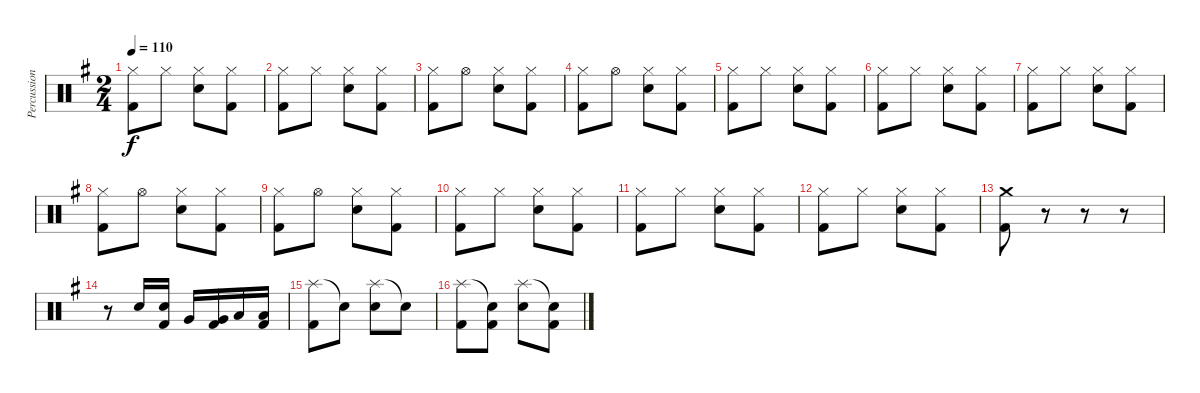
\track ("Percussion" "Percussion") {instrument percussion}
\staff {score}
\articulation defaults
\ts (2 4)
\tempo 110
\clef neutral
\ks g
("Hi-Hat (closed)" "Kick (hit) 2").8{dy f} "Hi-Hat (closed)".8 ("Hi-Hat (closed)" "Electric Snare (hit)").8 ("Hi-Hat (closed)" "Kick (hit) 2").8 |
("Hi-Hat (closed)" "Kick (hit) 2").8 "Hi-Hat (closed)".8 ("Hi-Hat (closed)" "Electric Snare (hit)").8 ("Hi-Hat (closed)" "Kick (hit) 2").8 |
("Hi-Hat (closed)" "Kick (hit) 2").8 "Hi-Hat (open)".8 ("Hi-Hat (closed)" "Electric Snare (hit)").8 ("Hi-Hat (closed)" "Kick (hit) 2").8 |
("Hi-Hat (closed)" "Kick (hit) 2").8 "Hi-Hat (open)".8 ("Hi-Hat (closed)" "Electric Snare (hit)").8 ("Hi-Hat (closed)" "Kick (hit) 2").8 |
("Hi-Hat (closed)" "Kick (hit) 2").8 "Hi-Hat (closed)".8 ("Hi-Hat (closed)" "Electric Snare (hit)").8 ("Hi-Hat (closed)" "Kick (hit) 2").8 |
("Hi-Hat (closed)" "Kick (hit) 2").8 "Hi-Hat (closed)".8 ("Hi-Hat (closed)" "Electric Snare (hit)").8 ("Hi-Hat (closed)" "Kick (hit) 2").8 |
("Hi-Hat (closed)" "Kick (hit) 2").8 "Hi-Hat (closed)".8 ("Hi-Hat (closed)" "Electric Snare (hit)").8 ("Hi-Hat (closed)" "Kick (hit) 2").8 |
("Hi-Hat (closed)" "Kick (hit) 2").8 "Hi-Hat (open)".8 ("Hi-Hat (closed)" "Electric Snare (hit)").8 ("Hi-Hat (closed)" "Kick (hit) 2").8 |
("Hi-Hat (closed)" "Kick (hit) 2").8 "Hi-Hat (open)".8 ("Hi-Hat (closed)" "Electric Snare (hit)").8 ("Hi-Hat (closed)" "Kick (hit) 2").8 |
("Hi-Hat (closed)" "Kick (hit) 2").8 "Hi-Hat (closed)".8 ("Hi-Hat (closed)" "Electric Snare (hit)").8 ("Hi-Hat (closed)" "Kick (hit) 2").8 |
("Hi-Hat (closed)" "Kick (hit) 2").8 "Hi-Hat (closed)".8 ("Hi-Hat (closed)" "Electric Snare (hit)").8 ("Hi-Hat (closed)" "Kick (hit) 2").8 |
("Hi-Hat (closed)" "Kick (hit) 2").8 "Hi-Hat (closed)".8 ("Hi-Hat (closed)" "Electric Snare (hit)").8 ("Hi-Hat (closed)" "Kick (hit) 2").8 |
("Crash medium (hit)" "Kick (hit) 2").8 r.8 r.8 r.8 |
r.8 "Electric Snare (hit)".16 ("Electric Snare (hit)" "Kick (hit) 2").16 "Very Low Tom (hit)".16 ("Very Low Tom (hit)" "Kick (hit) 2").16 "Low Floor Tom (hit)".16 ("Low Floor Tom (hit)" "Kick (hit) 2").16 |
("Splash (hit)" "Kick (hit) 2").8 "Snare (hit)"{t}.8 ("Splash (hit)" "Electric Snare (hit)").8 "Snare (hit)"{t}.8 |
("Splash (hit)" "Kick (hit) 2").8 ("Snare (hit)"{t} "Kick (hit) 2").8 ("Splash (hit)" "Electric Snare (hit)").8 ("Snare (hit)"{t} "Kick (hit) 2").8
